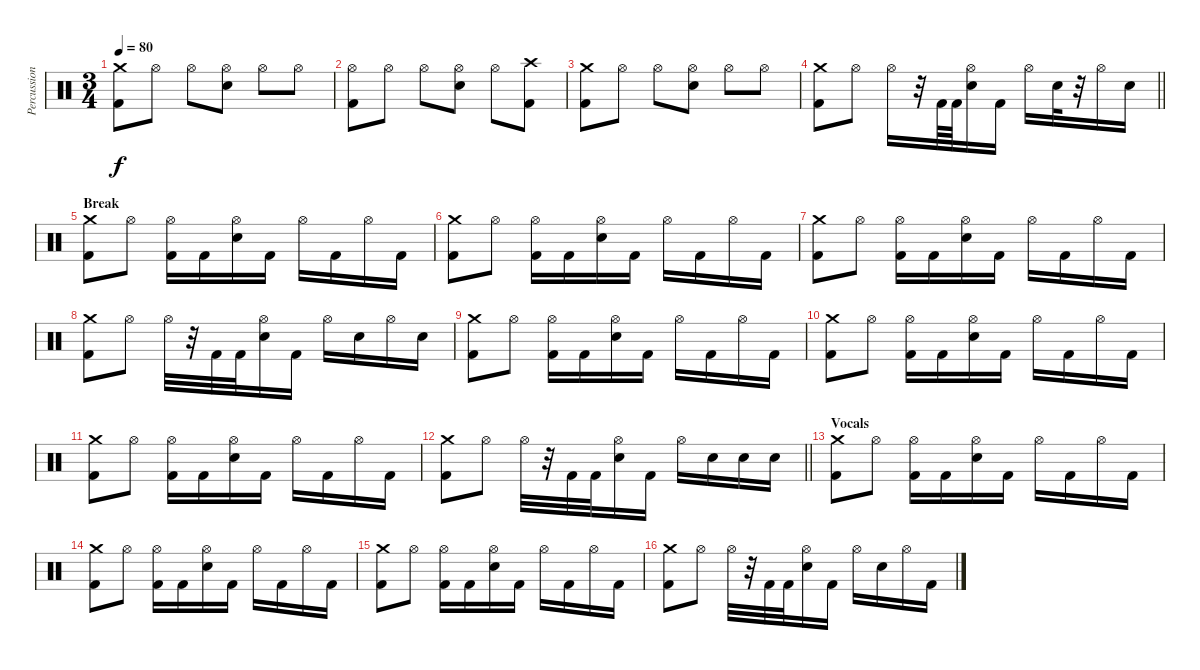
\track ("Percussion" "Percussion") {instrument percussion}
\staff {score}
\articulation defaults
\ts (3 4)
\tempo 80
\clef neutral
\ks c
("Crash medium (hit)" "Kick (hit) 2").8{dy f} "Hi-Hat (open)".8 "Hi-Hat (open)".8 ("Hi-Hat (open)" "Snare (hit) 2").8 "Hi-Hat (open)".8 "Hi-Hat (open)".8 |
("Hi-Hat (open)" "Kick (hit) 2").8 "Hi-Hat (open)".8 "Hi-Hat (open)".8 ("Hi-Hat (open)" "Snare (hit) 2").8 "Hi-Hat (open)".8 ("Crash high (hit)" "Kick (hit) 2").8 |
("Crash medium (hit)" "Kick (hit) 2").8 "Hi-Hat (open)".8 "Hi-Hat (open)".8 ("Hi-Hat (open)" "Snare (hit) 2").8 "Hi-Hat (open)".8 "Hi-Hat (open)".8 |
\barLineRight lightlight
("Crash medium (hit)" "Kick (hit) 2").8 "Hi-Hat (open)".8 "Hi-Hat (open)".16 r.32 "Kick (hit) 2".64 "Kick (hit) 2".64 ("Hi-Hat (open)" "Snare (hit) 2").16 "Kick (hit) 2".16 "Hi-Hat (open)".16 "Snare (hit) 2".32 r.32 "Hi-Hat (open)".16 "Snare (hit) 2".16 |
\section ("" "Break")
("Crash medium (hit)" "Kick (hit) 2").8 "Hi-Hat (open)".8 ("Hi-Hat (open)" "Kick (hit) 2").16 "Kick (hit) 2".16 ("Hi-Hat (open)" "Snare (hit) 2").16 "Kick (hit) 2".16 "Hi-Hat (open)".16 "Kick (hit) 2".16 "Hi-Hat (open)".16 "Kick (hit) 2".16 |
("Crash medium (hit)" "Kick (hit) 2").8 "Hi-Hat (open)".8 ("Hi-Hat (open)" "Kick (hit) 2").16 "Kick (hit) 2".16 ("Hi-Hat (open)" "Snare (hit) 2").16 "Kick (hit) 2".16 "Hi-Hat (open)".16 "Kick (hit) 2".16 "Hi-Hat (open)".16 "Kick (hit) 2".16 |
("Crash medium (hit)" "Kick (hit) 2").8 "Hi-Hat (open)".8 ("Hi-Hat (open)" "Kick (hit) 2").16 "Kick (hit) 2".16 ("Hi-Hat (open)" "Snare (hit) 2").16 "Kick (hit) 2".16 "Hi-Hat (open)".16 "Kick (hit) 2".16 "Hi-Hat (open)".16 "Kick (hit) 2".16 |
("Crash medium (hit)" "Kick (hit) 2").8 "Hi-Hat (open)".8 "Hi-Hat (open)".32 r.32 "Kick (hit) 2".32 "Kick (hit) 2".32 ("Hi-Hat (open)" "Snare (hit) 2").16 "Kick (hit) 2".16 "Hi-Hat (open)".16 "Snare (hit) 2".16 "Hi-Hat (open)".16 "Snare (hit) 2".16 |
("Crash medium (hit)" "Kick (hit) 2").8 "Hi-Hat (open)".8 ("Hi-Hat (open)" "Kick (hit) 2").16 "Kick (hit) 2".16 ("Hi-Hat (open)" "Snare (hit) 2").16 "Kick (hit) 2".16 "Hi-Hat (open)".16 "Kick (hit) 2".16 "Hi-Hat (open)".16 "Kick (hit) 2".16 |
("Crash medium (hit)" "Kick (hit) 2").8 "Hi-Hat (open)".8 ("Hi-Hat (open)" "Kick (hit) 2").16 "Kick (hit) 2".16 ("Hi-Hat (open)" "Snare (hit) 2").16 "Kick (hit) 2".16 "Hi-Hat (open)".16 "Kick (hit) 2".16 "Hi-Hat (open)".16 "Kick (hit) 2".16 |
("Crash medium (hit)" "Kick (hit) 2").8 "Hi-Hat (open)".8 ("Hi-Hat (open)" "Kick (hit) 2").16 "Kick (hit) 2".16 ("Hi-Hat (open)" "Snare (hit) 2").16 "Kick (hit) 2".16 "Hi-Hat (open)".16 "Kick (hit) 2".16 "Hi-Hat (open)".16 "Kick (hit) 2".16 |
\barLineRight lightlight
("Crash medium (hit)" "Kick (hit) 2").8 "Hi-Hat (open)".8 "Hi-Hat (open)".32 r.32 "Kick (hit) 2".32 "Kick (hit) 2".32 ("Hi-Hat (open)" "Snare (hit) 2").16 "Kick (hit) 2".16 "Hi-Hat (open)".16 "Snare (hit) 2".16 "Snare (hit) 2".16 "Snare (hit) 2".16 |
\section ("" "Vocals")
("Crash medium (hit)" "Kick (hit) 2").8 "Hi-Hat (open)".8 ("Hi-Hat (open)" "Kick (hit) 2").16 "Kick (hit) 2".16 ("Hi-Hat (open)" "Snare (hit) 2").16 "Kick (hit) 2".16 "Hi-Hat (open)".16 "Kick (hit) 2".16 "Hi-Hat (open)".16 "Kick (hit) 2".16 |
("Crash medium (hit)" "Kick (hit) 2").8 "Hi-Hat (open)".8 ("Hi-Hat (open)" "Kick (hit) 2").16 "Kick (hit) 2".16 ("Hi-Hat (open)" "Snare (hit) 2").16 "Kick (hit) 2".16 "Hi-Hat (open)".16 "Kick (hit) 2".16 "Hi-Hat (open)".16 "Kick (hit) 2".16 |
("Crash medium (hit)" "Kick (hit) 2").8 "Hi-Hat (open)".8 ("Hi-Hat (open)" "Kick (hit) 2").16 "Kick (hit) 2".16 ("Hi-Hat (open)" "Snare (hit) 2").16 "Kick (hit) 2".16 "Hi-Hat (open)".16 "Kick (hit) 2".16 "Hi-Hat (open)".16 "Kick (hit) 2".16 |
("Crash medium (hit)" "Kick (hit) 2").8 "Hi-Hat (open)".8 "Hi-Hat (open)".32 r.32 "Kick (hit) 2".32 "Kick (hit) 2".32 ("Hi-Hat (open)" "Snare (hit) 2").16 "Kick (hit) 2".16 "Hi-Hat (open)".16 "Snare (hit) 2".16 "Hi-Hat (open)".16 "Kick (hit) 2".16
